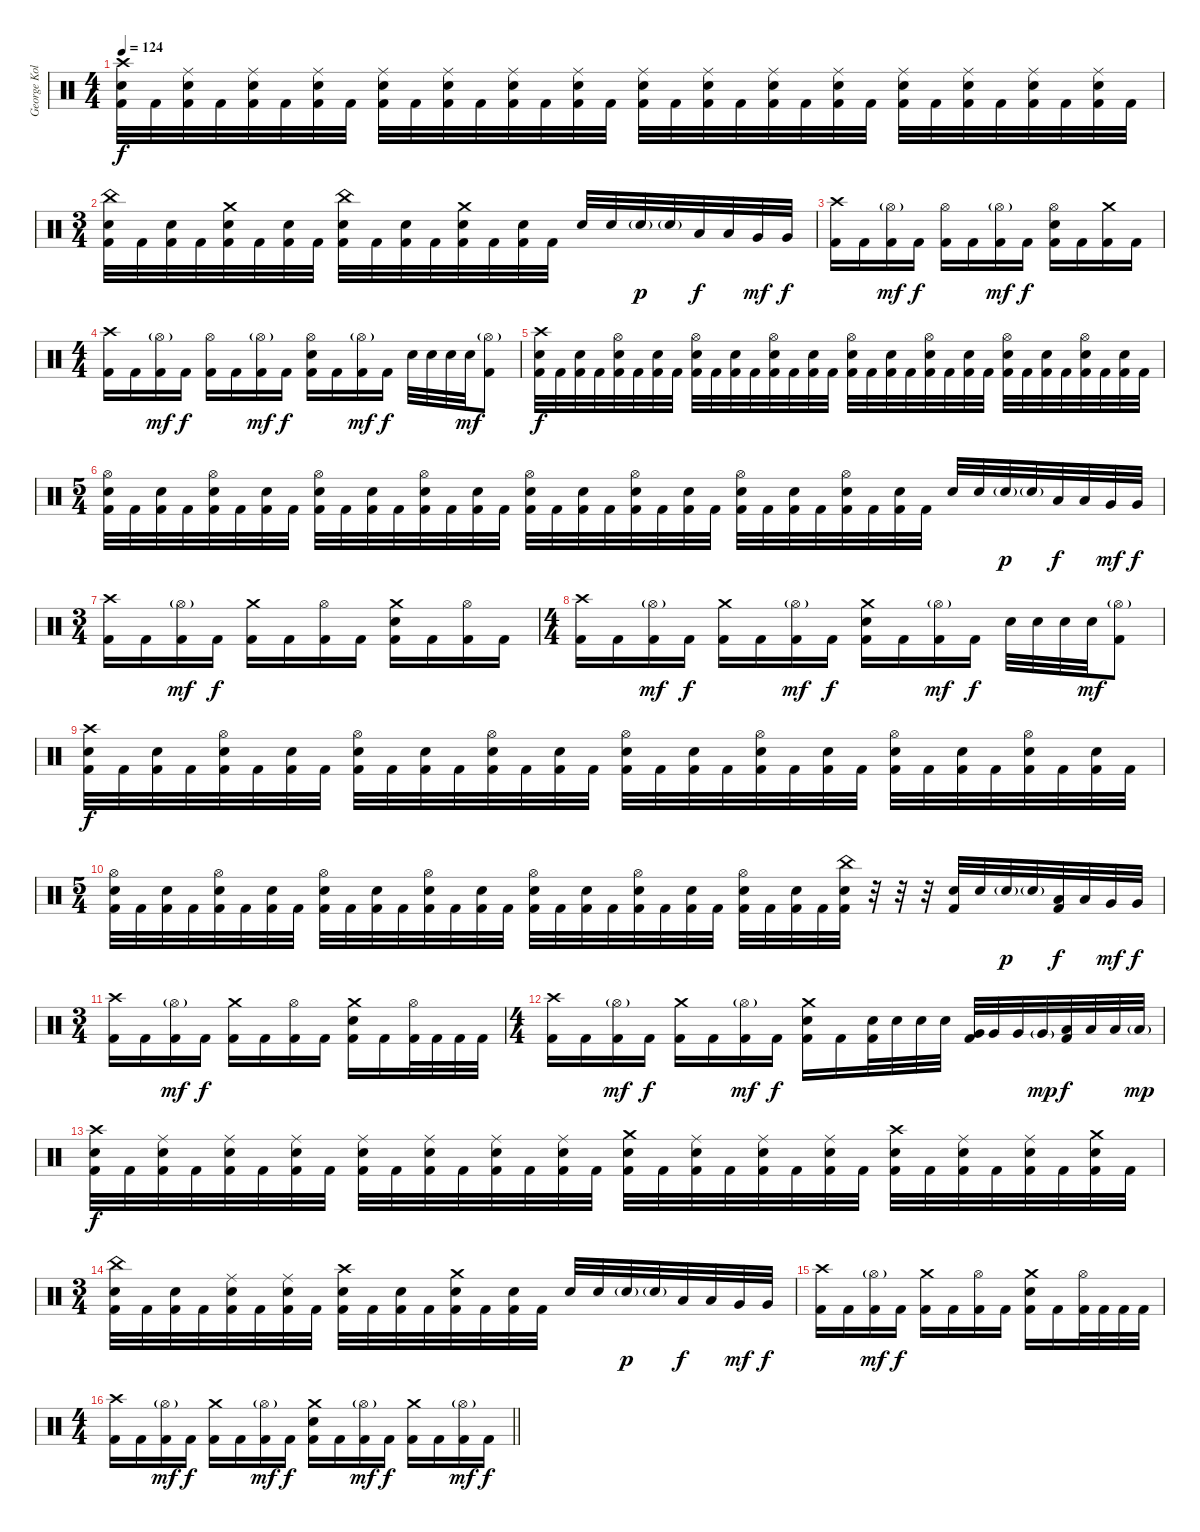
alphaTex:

\track ("George Kollias" "George Kol") {instrument percussion}
\staff {score}
\articulation defaults
\ts (4 4)
\tempo 124
\clef neutral
\ks c
("Crash high (hit)" "Electric Snare (hit)" "Kick (hit) 2").32{dy f} "Kick (hit) 2".32 ("Ride (middle)" "Electric Snare (hit)" "Kick (hit) 2").32 "Kick (hit) 2".32 ("Ride (middle)" "Electric Snare (hit)" "Kick (hit) 2").32 "Kick (hit) 2".32 ("Ride (middle)" "Electric Snare (hit)" "Kick (hit) 2").32 "Kick (hit) 2".32 ("Ride (middle)" "Electric Snare (hit)" "Kick (hit) 2").32 "Kick (hit) 2".32 ("Ride (middle)" "Electric Snare (hit)" "Kick (hit) 2").32 "Kick (hit) 2".32 ("Ride (middle)" "Electric Snare (hit)" "Kick (hit) 2").32 "Kick (hit) 2".32 ("Ride (middle)" "Electric Snare (hit)" "Kick (hit) 2").32 "Kick (hit) 2".32 ("Ride (middle)" "Electric Snare (hit)" "Kick (hit) 2").32 "Kick (hit) 2".32 ("Ride (middle)" "Electric Snare (hit)" "Kick (hit) 2").32 "Kick (hit) 2".32 ("Ride (middle)" "Electric Snare (hit)" "Kick (hit) 2").32 "Kick (hit) 2".32 ("Ride (middle)" "Electric Snare (hit)" "Kick (hit) 2").32 "Kick (hit) 2".32 ("Ride (middle)" "Electric Snare (hit)" "Kick (hit) 2").32 "Kick (hit) 2".32 ("Ride (middle)" "Electric Snare (hit)" "Kick (hit) 2").32 "Kick (hit) 2".32 ("Ride (middle)" "Electric Snare (hit)" "Kick (hit) 2").32 "Kick (hit) 2".32 ("Ride (middle)" "Electric Snare (hit)" "Kick (hit) 2").32 "Kick (hit) 2".32 |
\ts (3 4)
("China (hit)" "Electric Snare (hit)" "Kick (hit) 2").32 "Kick (hit) 2".32 ("Electric Snare (hit)" "Kick (hit) 2").32 "Kick (hit) 2".32 ("Crash medium (hit)" "Electric Snare (hit)" "Kick (hit) 2").32 "Kick (hit) 2".32 ("Electric Snare (hit)" "Kick (hit) 2").32 "Kick (hit) 2".32 ("China (hit)" "Electric Snare (hit)" "Kick (hit) 2").32 "Kick (hit) 2".32 ("Electric Snare (hit)" "Kick (hit) 2").32 "Kick (hit) 2".32 ("Crash medium (hit)" "Electric Snare (hit)" "Kick (hit) 2").32 "Kick (hit) 2".32 ("Electric Snare (hit)" "Kick (hit) 2").32 "Kick (hit) 2".32 "Electric Snare (hit)".32 "Electric Snare (hit)".32 "Electric Snare (hit)"{g}.32{dy p} "Electric Snare (hit)"{g}.32 "Low Tom (hit)".32{dy f} "Low Tom (hit)".32 "Very Low Tom (hit)".32{dy mf} "Very Low Tom (hit)".32{dy f} |
("Crash high (hit)" "Kick (hit) 2").16 "Kick (hit) 2".16 ("Hi-Hat (open)"{g} "Kick (hit) 2").16{dy mf} "Kick (hit) 2".16{dy f} ("Hi-Hat (open)" "Kick (hit) 2").16 "Kick (hit) 2".16 ("Hi-Hat (open)"{g} "Kick (hit) 2").16{dy mf} "Kick (hit) 2".16{dy f} ("Hi-Hat (open)" "Electric Snare (hit)" "Kick (hit) 2").16 "Kick (hit) 2".16 ("Crash medium (hit)" "Kick (hit) 2").16 "Kick (hit) 2".16 |
\ts (4 4)
("Crash high (hit)" "Kick (hit) 2").16 "Kick (hit) 2".16 ("Hi-Hat (open)"{g} "Kick (hit) 2").16{dy mf} "Kick (hit) 2".16{dy f} ("Hi-Hat (open)" "Kick (hit) 2").16 "Kick (hit) 2".16 ("Hi-Hat (open)"{g} "Kick (hit) 2").16{dy mf} "Kick (hit) 2".16{dy f} ("Hi-Hat (open)" "Electric Snare (hit)" "Kick (hit) 2").16 "Kick (hit) 2".16 ("Hi-Hat (open)"{g} "Kick (hit) 2").16{dy mf} "Kick (hit) 2".16{dy f} "Electric Snare (hit)".32 "Electric Snare (hit)".32 "Electric Snare (hit)".32 "Electric Snare (hit)".32{dy mf} ("Hi-Hat (open)"{g} "Kick (hit) 2").8 |
("Crash high (hit)" "Electric Snare (hit)" "Kick (hit) 2").32{dy f} "Kick (hit) 2".32 ("Electric Snare (hit)" "Kick (hit) 2").32 "Kick (hit) 2".32 ("Hi-Hat (open)" "Electric Snare (hit)" "Kick (hit) 2").32 "Kick (hit) 2".32 ("Electric Snare (hit)" "Kick (hit) 2").32 "Kick (hit) 2".32 ("Hi-Hat (open)" "Electric Snare (hit)" "Kick (hit) 2").32 "Kick (hit) 2".32 ("Electric Snare (hit)" "Kick (hit) 2").32 "Kick (hit) 2".32 ("Hi-Hat (open)" "Electric Snare (hit)" "Kick (hit) 2").32 "Kick (hit) 2".32 ("Electric Snare (hit)" "Kick (hit) 2").32 "Kick (hit) 2".32 ("Hi-Hat (open)" "Electric Snare (hit)" "Kick (hit) 2").32 "Kick (hit) 2".32 ("Electric Snare (hit)" "Kick (hit) 2").32 "Kick (hit) 2".32 ("Hi-Hat (open)" "Electric Snare (hit)" "Kick (hit) 2").32 "Kick (hit) 2".32 ("Electric Snare (hit)" "Kick (hit) 2").32 "Kick (hit) 2".32 ("Hi-Hat (open)" "Electric Snare (hit)" "Kick (hit) 2").32 "Kick (hit) 2".32 ("Electric Snare (hit)" "Kick (hit) 2").32 "Kick (hit) 2".32 ("Hi-Hat (open)" "Electric Snare (hit)" "Kick (hit) 2").32 "Kick (hit) 2".32 ("Electric Snare (hit)" "Kick (hit) 2").32 "Kick (hit) 2".32 |
\ts (5 4)
("Hi-Hat (open)" "Electric Snare (hit)" "Kick (hit) 2").32 "Kick (hit) 2".32 ("Electric Snare (hit)" "Kick (hit) 2").32 "Kick (hit) 2".32 ("Hi-Hat (open)" "Electric Snare (hit)" "Kick (hit) 2").32 "Kick (hit) 2".32 ("Electric Snare (hit)" "Kick (hit) 2").32 "Kick (hit) 2".32 ("Hi-Hat (open)" "Electric Snare (hit)" "Kick (hit) 2").32 "Kick (hit) 2".32 ("Electric Snare (hit)" "Kick (hit) 2").32 "Kick (hit) 2".32 ("Hi-Hat (open)" "Electric Snare (hit)" "Kick (hit) 2").32 "Kick (hit) 2".32 ("Electric Snare (hit)" "Kick (hit) 2").32 "Kick (hit) 2".32 ("Hi-Hat (open)" "Electric Snare (hit)" "Kick (hit) 2").32 "Kick (hit) 2".32 ("Electric Snare (hit)" "Kick (hit) 2").32 "Kick (hit) 2".32 ("Hi-Hat (open)" "Electric Snare (hit)" "Kick (hit) 2").32 "Kick (hit) 2".32 ("Electric Snare (hit)" "Kick (hit) 2").32 "Kick (hit) 2".32 ("Hi-Hat (open)" "Electric Snare (hit)" "Kick (hit) 2").32 "Kick (hit) 2".32 ("Electric Snare (hit)" "Kick (hit) 2").32 "Kick (hit) 2".32 ("Hi-Hat (open)" "Electric Snare (hit)" "Kick (hit) 2").32 "Kick (hit) 2".32 ("Electric Snare (hit)" "Kick (hit) 2").32 "Kick (hit) 2".32 "Electric Snare (hit)".32 "Electric Snare (hit)".32 "Electric Snare (hit)"{g}.32{dy p} "Electric Snare (hit)"{g}.32 "Low Tom (hit)".32{dy f} "Low Tom (hit)".32 "Very Low Tom (hit)".32{dy mf} "Very Low Tom (hit)".32{dy f} |
\ts (3 4)
("Crash high (hit)" "Kick (hit) 2").16 "Kick (hit) 2".16 ("Hi-Hat (open)"{g} "Kick (hit) 2").16{dy mf} "Kick (hit) 2".16{dy f} ("Crash medium (hit)" "Kick (hit) 2").16 "Kick (hit) 2".16 ("Hi-Hat (open)" "Kick (hit) 2").16 "Kick (hit) 2".16 ("Crash medium (hit)" "Electric Snare (hit)" "Kick (hit) 2").16 "Kick (hit) 2".16 ("Hi-Hat (open)" "Kick (hit) 2").16 "Kick (hit) 2".16 |
\ts (4 4)
("Crash high (hit)" "Kick (hit) 2").16 "Kick (hit) 2".16 ("Hi-Hat (open)"{g} "Kick (hit) 2").16{dy mf} "Kick (hit) 2".16{dy f} ("Crash medium (hit)" "Kick (hit) 2").16 "Kick (hit) 2".16 ("Hi-Hat (open)"{g} "Kick (hit) 2").16{dy mf} "Kick (hit) 2".16{dy f} ("Crash medium (hit)" "Electric Snare (hit)" "Kick (hit) 2").16 "Kick (hit) 2".16 ("Hi-Hat (open)"{g} "Kick (hit) 2").16{dy mf} "Kick (hit) 2".16{dy f} "Electric Snare (hit)".32 "Electric Snare (hit)".32 "Electric Snare (hit)".32 "Electric Snare (hit)".32{dy mf} ("Hi-Hat (open)"{g} "Kick (hit) 2").8 |
("Crash high (hit)" "Electric Snare (hit)" "Kick (hit) 2").32{dy f} "Kick (hit) 2".32 ("Electric Snare (hit)" "Kick (hit) 2").32 "Kick (hit) 2".32 ("Hi-Hat (open)" "Electric Snare (hit)" "Kick (hit) 2").32 "Kick (hit) 2".32 ("Electric Snare (hit)" "Kick (hit) 2").32 "Kick (hit) 2".32 ("Hi-Hat (open)" "Electric Snare (hit)" "Kick (hit) 2").32 "Kick (hit) 2".32 ("Electric Snare (hit)" "Kick (hit) 2").32 "Kick (hit) 2".32 ("Hi-Hat (open)" "Electric Snare (hit)" "Kick (hit) 2").32 "Kick (hit) 2".32 ("Electric Snare (hit)" "Kick (hit) 2").32 "Kick (hit) 2".32 ("Hi-Hat (open)" "Electric Snare (hit)" "Kick (hit) 2").32 "Kick (hit) 2".32 ("Electric Snare (hit)" "Kick (hit) 2").32 "Kick (hit) 2".32 ("Hi-Hat (open)" "Electric Snare (hit)" "Kick (hit) 2").32 "Kick (hit) 2".32 ("Electric Snare (hit)" "Kick (hit) 2").32 "Kick (hit) 2".32 ("Hi-Hat (open)" "Electric Snare (hit)" "Kick (hit) 2").32 "Kick (hit) 2".32 ("Electric Snare (hit)" "Kick (hit) 2").32 "Kick (hit) 2".32 ("Hi-Hat (open)" "Electric Snare (hit)" "Kick (hit) 2").32 "Kick (hit) 2".32 ("Electric Snare (hit)" "Kick (hit) 2").32 "Kick (hit) 2".32 |
\ts (5 4)
("Hi-Hat (open)" "Electric Snare (hit)" "Kick (hit) 2").32 "Kick (hit) 2".32 ("Electric Snare (hit)" "Kick (hit) 2").32 "Kick (hit) 2".32 ("Hi-Hat (open)" "Electric Snare (hit)" "Kick (hit) 2").32 "Kick (hit) 2".32 ("Electric Snare (hit)" "Kick (hit) 2").32 "Kick (hit) 2".32 ("Hi-Hat (open)" "Electric Snare (hit)" "Kick (hit) 2").32 "Kick (hit) 2".32 ("Electric Snare (hit)" "Kick (hit) 2").32 "Kick (hit) 2".32 ("Hi-Hat (open)" "Electric Snare (hit)" "Kick (hit) 2").32 "Kick (hit) 2".32 ("Electric Snare (hit)" "Kick (hit) 2").32 "Kick (hit) 2".32 ("Hi-Hat (open)" "Electric Snare (hit)" "Kick (hit) 2").32 "Kick (hit) 2".32 ("Electric Snare (hit)" "Kick (hit) 2").32 "Kick (hit) 2".32 ("Hi-Hat (open)" "Electric Snare (hit)" "Kick (hit) 2").32 "Kick (hit) 2".32 ("Electric Snare (hit)" "Kick (hit) 2").32 "Kick (hit) 2".32 ("Hi-Hat (open)" "Electric Snare (hit)" "Kick (hit) 2").32 "Kick (hit) 2".32 ("Electric Snare (hit)" "Kick (hit) 2").32 "Kick (hit) 2".32 ("China (hit)" "Electric Snare (hit)" "Kick (hit) 2").32 r.32 r.32 r.32 ("Electric Snare (hit)" "Kick (hit) 2").32 "Electric Snare (hit)".32 "Electric Snare (hit)"{g}.32{dy p} "Electric Snare (hit)"{g}.32 ("Low Tom (hit)" "Kick (hit) 2").32{dy f} "Low Tom (hit)".32 "Very Low Tom (hit)".32{dy mf} "Very Low Tom (hit)".32{dy f} |
\ts (3 4)
("Crash high (hit)" "Kick (hit) 2").16 "Kick (hit) 2".16 ("Hi-Hat (open)"{g} "Kick (hit) 2").16{dy mf} "Kick (hit) 2".16{dy f} ("Crash medium (hit)" "Kick (hit) 2").16 "Kick (hit) 2".16 ("Hi-Hat (open)" "Kick (hit) 2").16 "Kick (hit) 2".16 ("Crash medium (hit)" "Electric Snare (hit)" "Kick (hit) 2").16 "Kick (hit) 2".16 ("Hi-Hat (open)" "Kick (hit) 2").32 "Kick (hit) 2".32 "Kick (hit) 2".32 "Kick (hit) 2".32 |
\ts (4 4)
("Crash high (hit)" "Kick (hit) 2").16 "Kick (hit) 2".16 ("Hi-Hat (open)"{g} "Kick (hit) 2").16{dy mf} "Kick (hit) 2".16{dy f} ("Crash medium (hit)" "Kick (hit) 2").16 "Kick (hit) 2".16 ("Hi-Hat (open)"{g} "Kick (hit) 2").16{dy mf} "Kick (hit) 2".16{dy f} ("Crash medium (hit)" "Electric Snare (hit)" "Kick (hit) 2").16 "Kick (hit) 2".16 ("Electric Snare (hit)" "Kick (hit) 2").32 "Electric Snare (hit)".32 "Electric Snare (hit)".32 "Electric Snare (hit)".32 ("Very Low Tom (hit)" "Kick (hit) 2").32 "Very Low Tom (hit)".32 "Very Low Tom (hit)".32 "Very Low Tom (hit)"{g}.32{dy mp} ("Low Floor Tom (hit)" "Kick (hit) 2").32{dy f} "Low Floor Tom (hit)".32 "Low Floor Tom (hit)".32 "Low Floor Tom (hit)"{g}.32{dy mp} |
("Crash high (hit)" "Electric Snare (hit)" "Kick (hit) 2").32{dy f} "Kick (hit) 2".32 ("Ride (middle)" "Electric Snare (hit)" "Kick (hit) 2").32 "Kick (hit) 2".32 ("Ride (middle)" "Electric Snare (hit)" "Kick (hit) 2").32 "Kick (hit) 2".32 ("Ride (middle)" "Electric Snare (hit)" "Kick (hit) 2").32 "Kick (hit) 2".32 ("Ride (middle)" "Electric Snare (hit)" "Kick (hit) 2").32 "Kick (hit) 2".32 ("Ride (middle)" "Electric Snare (hit)" "Kick (hit) 2").32 "Kick (hit) 2".32 ("Ride (middle)" "Electric Snare (hit)" "Kick (hit) 2").32 "Kick (hit) 2".32 ("Ride (middle)" "Electric Snare (hit)" "Kick (hit) 2").32 "Kick (hit) 2".32 ("Crash medium (hit)" "Electric Snare (hit)" "Kick (hit) 2").32 "Kick (hit) 2".32 ("Ride (middle)" "Electric Snare (hit)" "Kick (hit) 2").32 "Kick (hit) 2".32 ("Ride (middle)" "Electric Snare (hit)" "Kick (hit) 2").32 "Kick (hit) 2".32 ("Ride (middle)" "Electric Snare (hit)" "Kick (hit) 2").32 "Kick (hit) 2".32 ("Crash high (hit)" "Electric Snare (hit)" "Kick (hit) 2").32 "Kick (hit) 2".32 ("Ride (middle)" "Electric Snare (hit)" "Kick (hit) 2").32 "Kick (hit) 2".32 ("Ride (middle)" "Electric Snare (hit)" "Kick (hit) 2").32 "Kick (hit) 2".32 ("Crash medium (hit)" "Electric Snare (hit)" "Kick (hit) 2").32 "Kick (hit) 2".32 |
\ts (3 4)
("China (hit)" "Electric Snare (hit)" "Kick (hit) 2").32 "Kick (hit) 2".32 ("Electric Snare (hit)" "Kick (hit) 2").32 "Kick (hit) 2".32 ("Ride (middle)" "Electric Snare (hit)" "Kick (hit) 2").32 "Kick (hit) 2".32 ("Ride (middle)" "Electric Snare (hit)" "Kick (hit) 2").32 "Kick (hit) 2".32 ("Crash high (hit)" "Electric Snare (hit)" "Kick (hit) 2").32 "Kick (hit) 2".32 ("Electric Snare (hit)" "Kick (hit) 2").32 "Kick (hit) 2".32 ("Crash medium (hit)" "Electric Snare (hit)" "Kick (hit) 2").32 "Kick (hit) 2".32 ("Electric Snare (hit)" "Kick (hit) 2").32 "Kick (hit) 2".32 "Electric Snare (hit)".32 "Electric Snare (hit)".32 "Electric Snare (hit)"{g}.32{dy p} "Electric Snare (hit)"{g}.32 "Low Tom (hit)".32{dy f} "Low Tom (hit)".32 "Very Low Tom (hit)".32{dy mf} "Very Low Tom (hit)".32{dy f} |
("Crash high (hit)" "Kick (hit) 2").16 "Kick (hit) 2".16 ("Hi-Hat (open)"{g} "Kick (hit) 2").16{dy mf} "Kick (hit) 2".16{dy f} ("Crash medium (hit)" "Kick (hit) 2").16 "Kick (hit) 2".16 ("Hi-Hat (open)" "Kick (hit) 2").16 "Kick (hit) 2".16 ("Crash medium (hit)" "Electric Snare (hit)" "Kick (hit) 2").16 "Kick (hit) 2".16 ("Hi-Hat (open)" "Kick (hit) 2").32 "Kick (hit) 2".32 "Kick (hit) 2".32 "Kick (hit) 2".32 |
\ts (4 4)
\barLineRight lightlight
("Crash high (hit)" "Kick (hit) 2").16 "Kick (hit) 2".16 ("Hi-Hat (open)"{g} "Kick (hit) 2").16{dy mf} "Kick (hit) 2".16{dy f} ("Crash medium (hit)" "Kick (hit) 2").16 "Kick (hit) 2".16 ("Hi-Hat (open)"{g} "Kick (hit) 2").16{dy mf} "Kick (hit) 2".16{dy f} ("Crash medium (hit)" "Electric Snare (hit)" "Kick (hit) 2").16 "Kick (hit) 2".16 ("Hi-Hat (open)"{g} "Kick (hit) 2").16{dy mf} "Kick (hit) 2".16{dy f} ("Crash medium (hit)" "Kick (hit) 2").16 "Kick (hit) 2".16 ("Hi-Hat (open)"{g} "Kick (hit) 2").16{dy mf} "Kick (hit) 2".16{dy f}
